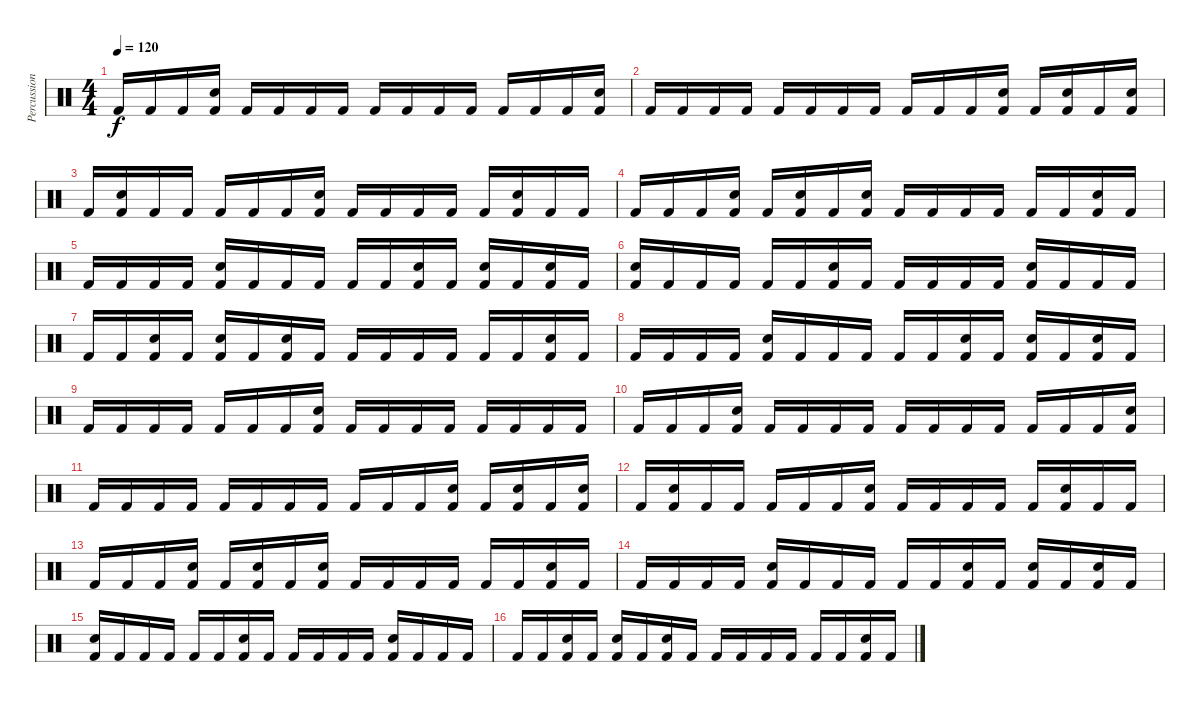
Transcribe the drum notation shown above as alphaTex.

\track ("Percussion" "Percussion") {instrument percussion}
\staff {score}
\articulation defaults
\ts (4 4)
\tempo 120
\clef neutral
\ks c "Kick (hit) 2".16{dy f} "Kick (hit) 2".16 "Kick (hit) 2".16
("Electric Snare (hit)" "Kick (hit) 2").16 "Kick (hit) 2".16 "Kick (hit) 2".16 "Kick (hit) 2".16 "Kick (hit) 2".16 "Kick (hit) 2".16 "Kick (hit) 2".16 "Kick (hit) 2".16 "Kick (hit) 2".16 "Kick (hit) 2".16 "Kick (hit) 2".16 "Kick (hit) 2".16 ("Electric Snare (hit)" "Kick (hit) 2").16 |
"Kick (hit) 2".16 "Kick (hit) 2".16 "Kick (hit) 2".16 "Kick (hit) 2".16 "Kick (hit) 2".16 "Kick (hit) 2".16 "Kick (hit) 2".16 "Kick (hit) 2".16 "Kick (hit) 2".16 "Kick (hit) 2".16 "Kick (hit) 2".16 ("Electric Snare (hit)" "Kick (hit) 2").16 "Kick (hit) 2".16 ("Electric Snare (hit)" "Kick (hit) 2").16 "Kick (hit) 2".16 ("Electric Snare (hit)" "Kick (hit) 2").16 |
"Kick (hit) 2".16 ("Electric Snare (hit)" "Kick (hit) 2").16 "Kick (hit) 2".16 "Kick (hit) 2".16 "Kick (hit) 2".16 "Kick (hit) 2".16 "Kick (hit) 2".16 ("Electric Snare (hit)" "Kick (hit) 2").16 "Kick (hit) 2".16 "Kick (hit) 2".16 "Kick (hit) 2".16 "Kick (hit) 2".16 "Kick (hit) 2".16 ("Electric Snare (hit)" "Kick (hit) 2").16 "Kick (hit) 2".16 "Kick (hit) 2".16 |
"Kick (hit) 2".16 "Kick (hit) 2".16 "Kick (hit) 2".16 ("Electric Snare (hit)" "Kick (hit) 2").16 "Kick (hit) 2".16 ("Electric Snare (hit)" "Kick (hit) 2").16 "Kick (hit) 2".16 ("Electric Snare (hit)" "Kick (hit) 2").16 "Kick (hit) 2".16 "Kick (hit) 2".16 "Kick (hit) 2".16 "Kick (hit) 2".16 "Kick (hit) 2".16 "Kick (hit) 2".16 ("Electric Snare (hit)" "Kick (hit) 2").16 "Kick (hit) 2".16 |
"Kick (hit) 2".16 "Kick (hit) 2".16 "Kick (hit) 2".16 "Kick (hit) 2".16 ("Electric Snare (hit)" "Kick (hit) 2").16 "Kick (hit) 2".16 "Kick (hit) 2".16 "Kick (hit) 2".16 "Kick (hit) 2".16 "Kick (hit) 2".16 ("Electric Snare (hit)" "Kick (hit) 2").16 "Kick (hit) 2".16 ("Electric Snare (hit)" "Kick (hit) 2").16 "Kick (hit) 2".16 ("Electric Snare (hit)" "Kick (hit) 2").16 "Kick (hit) 2".16 |
("Electric Snare (hit)" "Kick (hit) 2").16 "Kick (hit) 2".16 "Kick (hit) 2".16 "Kick (hit) 2".16 "Kick (hit) 2".16 "Kick (hit) 2".16 ("Electric Snare (hit)" "Kick (hit) 2").16 "Kick (hit) 2".16 "Kick (hit) 2".16 "Kick (hit) 2".16 "Kick (hit) 2".16 "Kick (hit) 2".16 ("Electric Snare (hit)" "Kick (hit) 2").16 "Kick (hit) 2".16 "Kick (hit) 2".16 "Kick (hit) 2".16 |
"Kick (hit) 2".16 "Kick (hit) 2".16 ("Electric Snare (hit)" "Kick (hit) 2").16 "Kick (hit) 2".16 ("Electric Snare (hit)" "Kick (hit) 2").16 "Kick (hit) 2".16 ("Electric Snare (hit)" "Kick (hit) 2").16 "Kick (hit) 2".16 "Kick (hit) 2".16 "Kick (hit) 2".16 "Kick (hit) 2".16 "Kick (hit) 2".16 "Kick (hit) 2".16 "Kick (hit) 2".16 ("Electric Snare (hit)" "Kick (hit) 2").16 "Kick (hit) 2".16 |
"Kick (hit) 2".16 "Kick (hit) 2".16 "Kick (hit) 2".16 "Kick (hit) 2".16 ("Electric Snare (hit)" "Kick (hit) 2").16 "Kick (hit) 2".16 "Kick (hit) 2".16 "Kick (hit) 2".16 "Kick (hit) 2".16 "Kick (hit) 2".16 ("Electric Snare (hit)" "Kick (hit) 2").16 "Kick (hit) 2".16 ("Electric Snare (hit)" "Kick (hit) 2").16 "Kick (hit) 2".16 ("Electric Snare (hit)" "Kick (hit) 2").16 "Kick (hit) 2".16 |
"Kick (hit) 2".16 "Kick (hit) 2".16 "Kick (hit) 2".16 "Kick (hit) 2".16 "Kick (hit) 2".16 "Kick (hit) 2".16 "Kick (hit) 2".16 ("Electric Snare (hit)" "Kick (hit) 2").16 "Kick (hit) 2".16 "Kick (hit) 2".16 "Kick (hit) 2".16 "Kick (hit) 2".16 "Kick (hit) 2".16 "Kick (hit) 2".16 "Kick (hit) 2".16 "Kick (hit) 2".16 |
"Kick (hit) 2".16 "Kick (hit) 2".16 "Kick (hit) 2".16 ("Electric Snare (hit)" "Kick (hit) 2").16 "Kick (hit) 2".16 "Kick (hit) 2".16 "Kick (hit) 2".16 "Kick (hit) 2".16 "Kick (hit) 2".16 "Kick (hit) 2".16 "Kick (hit) 2".16 "Kick (hit) 2".16 "Kick (hit) 2".16 "Kick (hit) 2".16 "Kick (hit) 2".16 ("Electric Snare (hit)" "Kick (hit) 2").16 |
"Kick (hit) 2".16 "Kick (hit) 2".16 "Kick (hit) 2".16 "Kick (hit) 2".16 "Kick (hit) 2".16 "Kick (hit) 2".16 "Kick (hit) 2".16 "Kick (hit) 2".16 "Kick (hit) 2".16 "Kick (hit) 2".16 "Kick (hit) 2".16 ("Electric Snare (hit)" "Kick (hit) 2").16 "Kick (hit) 2".16 ("Electric Snare (hit)" "Kick (hit) 2").16 "Kick (hit) 2".16 ("Electric Snare (hit)" "Kick (hit) 2").16 |
"Kick (hit) 2".16 ("Electric Snare (hit)" "Kick (hit) 2").16 "Kick (hit) 2".16 "Kick (hit) 2".16 "Kick (hit) 2".16 "Kick (hit) 2".16 "Kick (hit) 2".16 ("Electric Snare (hit)" "Kick (hit) 2").16 "Kick (hit) 2".16 "Kick (hit) 2".16 "Kick (hit) 2".16 "Kick (hit) 2".16 "Kick (hit) 2".16 ("Electric Snare (hit)" "Kick (hit) 2").16 "Kick (hit) 2".16 "Kick (hit) 2".16 |
"Kick (hit) 2".16 "Kick (hit) 2".16 "Kick (hit) 2".16 ("Electric Snare (hit)" "Kick (hit) 2").16 "Kick (hit) 2".16 ("Electric Snare (hit)" "Kick (hit) 2").16 "Kick (hit) 2".16 ("Electric Snare (hit)" "Kick (hit) 2").16 "Kick (hit) 2".16 "Kick (hit) 2".16 "Kick (hit) 2".16 "Kick (hit) 2".16 "Kick (hit) 2".16 "Kick (hit) 2".16 ("Electric Snare (hit)" "Kick (hit) 2").16 "Kick (hit) 2".16 |
"Kick (hit) 2".16 "Kick (hit) 2".16 "Kick (hit) 2".16 "Kick (hit) 2".16 ("Electric Snare (hit)" "Kick (hit) 2").16 "Kick (hit) 2".16 "Kick (hit) 2".16 "Kick (hit) 2".16 "Kick (hit) 2".16 "Kick (hit) 2".16 ("Electric Snare (hit)" "Kick (hit) 2").16 "Kick (hit) 2".16 ("Electric Snare (hit)" "Kick (hit) 2").16 "Kick (hit) 2".16 ("Electric Snare (hit)" "Kick (hit) 2").16 "Kick (hit) 2".16 |
("Electric Snare (hit)" "Kick (hit) 2").16 "Kick (hit) 2".16 "Kick (hit) 2".16 "Kick (hit) 2".16 "Kick (hit) 2".16 "Kick (hit) 2".16 ("Electric Snare (hit)" "Kick (hit) 2").16 "Kick (hit) 2".16 "Kick (hit) 2".16 "Kick (hit) 2".16 "Kick (hit) 2".16 "Kick (hit) 2".16 ("Electric Snare (hit)" "Kick (hit) 2").16 "Kick (hit) 2".16 "Kick (hit) 2".16 "Kick (hit) 2".16 |
"Kick (hit) 2".16 "Kick (hit) 2".16 ("Electric Snare (hit)" "Kick (hit) 2").16 "Kick (hit) 2".16 ("Electric Snare (hit)" "Kick (hit) 2").16 "Kick (hit) 2".16 ("Electric Snare (hit)" "Kick (hit) 2").16 "Kick (hit) 2".16 "Kick (hit) 2".16 "Kick (hit) 2".16 "Kick (hit) 2".16 "Kick (hit) 2".16 "Kick (hit) 2".16 "Kick (hit) 2".16 ("Electric Snare (hit)" "Kick (hit) 2").16 "Kick (hit) 2".16
